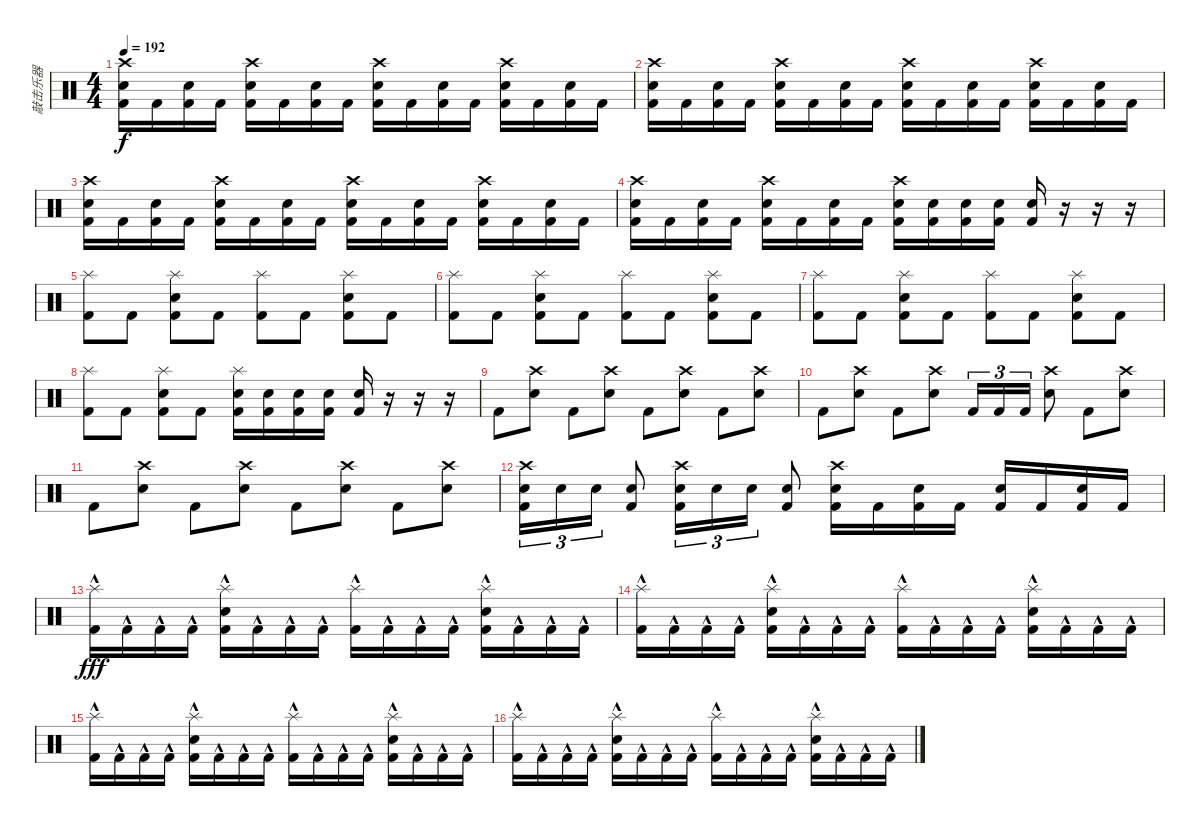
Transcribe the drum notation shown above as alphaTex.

\track ("敲击乐器" "敲击乐器") {instrument percussion}
\staff {score}
\articulation defaults
\ts (4 4)
\tempo 192
\clef neutral
\ks c
("Crash high (hit)" "Kick (hit) 2" "Electric Snare (hit)").16{dy f} "Kick (hit) 2".16 ("Kick (hit) 2" "Electric Snare (hit)").16 "Kick (hit) 2".16 ("Crash high (hit)" "Kick (hit) 2" "Electric Snare (hit)").16 "Kick (hit) 2".16 ("Kick (hit) 2" "Electric Snare (hit)").16 "Kick (hit) 2".16 ("Crash high (hit)" "Kick (hit) 2" "Electric Snare (hit)").16 "Kick (hit) 2".16 ("Kick (hit) 2" "Electric Snare (hit)").16 "Kick (hit) 2".16 ("Crash high (hit)" "Kick (hit) 2" "Electric Snare (hit)").16 "Kick (hit) 2".16 ("Kick (hit) 2" "Electric Snare (hit)").16 "Kick (hit) 2".16 |
("Crash high (hit)" "Kick (hit) 2" "Electric Snare (hit)").16 "Kick (hit) 2".16 ("Kick (hit) 2" "Electric Snare (hit)").16 "Kick (hit) 2".16 ("Crash high (hit)" "Kick (hit) 2" "Electric Snare (hit)").16 "Kick (hit) 2".16 ("Kick (hit) 2" "Electric Snare (hit)").16 "Kick (hit) 2".16 ("Crash high (hit)" "Kick (hit) 2" "Electric Snare (hit)").16 "Kick (hit) 2".16 ("Kick (hit) 2" "Electric Snare (hit)").16 "Kick (hit) 2".16 ("Crash high (hit)" "Kick (hit) 2" "Electric Snare (hit)").16 "Kick (hit) 2".16 ("Kick (hit) 2" "Electric Snare (hit)").16 "Kick (hit) 2".16 |
("Crash high (hit)" "Kick (hit) 2" "Electric Snare (hit)").16 "Kick (hit) 2".16 ("Kick (hit) 2" "Electric Snare (hit)").16 "Kick (hit) 2".16 ("Crash high (hit)" "Kick (hit) 2" "Electric Snare (hit)").16 "Kick (hit) 2".16 ("Kick (hit) 2" "Electric Snare (hit)").16 "Kick (hit) 2".16 ("Crash high (hit)" "Kick (hit) 2" "Electric Snare (hit)").16 "Kick (hit) 2".16 ("Kick (hit) 2" "Electric Snare (hit)").16 "Kick (hit) 2".16 ("Crash high (hit)" "Kick (hit) 2" "Electric Snare (hit)").16 "Kick (hit) 2".16 ("Kick (hit) 2" "Electric Snare (hit)").16 "Kick (hit) 2".16 |
("Crash high (hit)" "Kick (hit) 2" "Electric Snare (hit)").16 "Kick (hit) 2".16 ("Kick (hit) 2" "Electric Snare (hit)").16 "Kick (hit) 2".16 ("Crash high (hit)" "Kick (hit) 2" "Electric Snare (hit)").16 "Kick (hit) 2".16 ("Kick (hit) 2" "Electric Snare (hit)").16 "Kick (hit) 2".16 ("Crash high (hit)" "Kick (hit) 2" "Electric Snare (hit)").16 ("Kick (hit) 2" "Electric Snare (hit)").16 ("Kick (hit) 2" "Electric Snare (hit)").16 ("Kick (hit) 2" "Electric Snare (hit)").16 ("Kick (hit) 2" "Electric Snare (hit)").16 r.16 r.16 r.16 |
("Splash (hit)" "Kick (hit) 2").8 "Kick (hit) 2".8 ("Splash (hit)" "Kick (hit) 2" "Electric Snare (hit)").8 "Kick (hit) 2".8 ("Splash (hit)" "Kick (hit) 2").8 "Kick (hit) 2".8 ("Splash (hit)" "Kick (hit) 2" "Electric Snare (hit)").8 "Kick (hit) 2".8 |
("Splash (hit)" "Kick (hit) 2").8 "Kick (hit) 2".8 ("Splash (hit)" "Kick (hit) 2" "Electric Snare (hit)").8 "Kick (hit) 2".8 ("Splash (hit)" "Kick (hit) 2").8 "Kick (hit) 2".8 ("Splash (hit)" "Kick (hit) 2" "Electric Snare (hit)").8 "Kick (hit) 2".8 |
("Splash (hit)" "Kick (hit) 2").8 "Kick (hit) 2".8 ("Splash (hit)" "Kick (hit) 2" "Electric Snare (hit)").8 "Kick (hit) 2".8 ("Splash (hit)" "Kick (hit) 2").8 "Kick (hit) 2".8 ("Splash (hit)" "Kick (hit) 2" "Electric Snare (hit)").8 "Kick (hit) 2".8 |
("Splash (hit)" "Kick (hit) 2").8 "Kick (hit) 2".8 ("Splash (hit)" "Kick (hit) 2" "Electric Snare (hit)").8 "Kick (hit) 2".8 ("Splash (hit)" "Kick (hit) 2" "Electric Snare (hit)").16 ("Kick (hit) 2" "Electric Snare (hit)").16 ("Kick (hit) 2" "Electric Snare (hit)").16 ("Kick (hit) 2" "Electric Snare (hit)").16 ("Kick (hit) 2" "Electric Snare (hit)").16 r.16 r.16 r.16 |
"Kick (hit) 2".8 ("Crash high (hit)" "Electric Snare (hit)").8 "Kick (hit) 2".8 ("Crash high (hit)" "Electric Snare (hit)").8 "Kick (hit) 2".8 ("Crash high (hit)" "Electric Snare (hit)").8 "Kick (hit) 2".8 ("Crash high (hit)" "Electric Snare (hit)").8 |
"Kick (hit) 2".8 ("Crash high (hit)" "Electric Snare (hit)").8 "Kick (hit) 2".8 ("Crash high (hit)" "Electric Snare (hit)").8 "Kick (hit) 2".16{tu (3 2)} "Kick (hit) 2".16{tu (3 2)} "Kick (hit) 2".16{tu (3 2)} ("Crash high (hit)" "Electric Snare (hit)").8 "Kick (hit) 2".8 ("Crash high (hit)" "Electric Snare (hit)").8 |
"Kick (hit) 2".8 ("Crash high (hit)" "Electric Snare (hit)").8 "Kick (hit) 2".8 ("Crash high (hit)" "Electric Snare (hit)").8 "Kick (hit) 2".8 ("Crash high (hit)" "Electric Snare (hit)").8 "Kick (hit) 2".8 ("Crash high (hit)" "Electric Snare (hit)").8 |
("Crash high (hit)" "Kick (hit) 2" "Electric Snare (hit)").16{tu (3 2)} "Electric Snare (hit)".16{tu (3 2)} "Electric Snare (hit)".16{tu (3 2)} ("Kick (hit) 2" "Electric Snare (hit)").8 ("Crash high (hit)" "Kick (hit) 2" "Electric Snare (hit)").16{tu (3 2)} "Electric Snare (hit)".16{tu (3 2)} "Electric Snare (hit)".16{tu (3 2)} ("Kick (hit) 2" "Electric Snare (hit)").8 ("Crash high (hit)" "Kick (hit) 2" "Electric Snare (hit)").16 "Kick (hit) 2".16 ("Kick (hit) 2" "Electric Snare (hit)").16 "Kick (hit) 2".16 ("Kick (hit) 2" "Electric Snare (hit)").16 "Kick (hit) 2".16 ("Kick (hit) 2" "Electric Snare (hit)").16 "Kick (hit) 2".16 |
("Splash (hit)" "Kick (hit) 2"{hac}).16{dy fff} "Kick (hit) 2"{hac}.16 "Kick (hit) 2"{hac}.16 "Kick (hit) 2"{hac}.16 ("Splash (hit)" "Kick (hit) 2"{hac} "Electric Snare (hit)").16 "Kick (hit) 2"{hac}.16 "Kick (hit) 2"{hac}.16 "Kick (hit) 2"{hac}.16 ("Splash (hit)" "Kick (hit) 2"{hac}).16 "Kick (hit) 2"{hac}.16 "Kick (hit) 2"{hac}.16 "Kick (hit) 2"{hac}.16 ("Splash (hit)" "Kick (hit) 2"{hac} "Electric Snare (hit)").16 "Kick (hit) 2"{hac}.16 "Kick (hit) 2"{hac}.16 "Kick (hit) 2"{hac}.16 |
("Splash (hit)" "Kick (hit) 2"{hac}).16 "Kick (hit) 2"{hac}.16 "Kick (hit) 2"{hac}.16 "Kick (hit) 2"{hac}.16 ("Splash (hit)" "Kick (hit) 2"{hac} "Electric Snare (hit)").16 "Kick (hit) 2"{hac}.16 "Kick (hit) 2"{hac}.16 "Kick (hit) 2"{hac}.16 ("Splash (hit)" "Kick (hit) 2"{hac}).16 "Kick (hit) 2"{hac}.16 "Kick (hit) 2"{hac}.16 "Kick (hit) 2"{hac}.16 ("Splash (hit)" "Kick (hit) 2"{hac} "Electric Snare (hit)").16 "Kick (hit) 2"{hac}.16 "Kick (hit) 2"{hac}.16 "Kick (hit) 2"{hac}.16 |
("Splash (hit)" "Kick (hit) 2"{hac}).16 "Kick (hit) 2"{hac}.16 "Kick (hit) 2"{hac}.16 "Kick (hit) 2"{hac}.16 ("Splash (hit)" "Kick (hit) 2"{hac} "Electric Snare (hit)").16 "Kick (hit) 2"{hac}.16 "Kick (hit) 2"{hac}.16 "Kick (hit) 2"{hac}.16 ("Splash (hit)" "Kick (hit) 2"{hac}).16 "Kick (hit) 2"{hac}.16 "Kick (hit) 2"{hac}.16 "Kick (hit) 2"{hac}.16 ("Splash (hit)" "Kick (hit) 2"{hac} "Electric Snare (hit)").16 "Kick (hit) 2"{hac}.16 "Kick (hit) 2"{hac}.16 "Kick (hit) 2"{hac}.16 |
("Splash (hit)" "Kick (hit) 2"{hac}).16 "Kick (hit) 2"{hac}.16 "Kick (hit) 2"{hac}.16 "Kick (hit) 2"{hac}.16 ("Splash (hit)" "Kick (hit) 2"{hac} "Electric Snare (hit)").16 "Kick (hit) 2"{hac}.16 "Kick (hit) 2"{hac}.16 "Kick (hit) 2"{hac}.16 ("Splash (hit)" "Kick (hit) 2"{hac}).16 "Kick (hit) 2"{hac}.16 "Kick (hit) 2"{hac}.16 "Kick (hit) 2"{hac}.16 ("Splash (hit)" "Kick (hit) 2"{hac} "Electric Snare (hit)").16 "Kick (hit) 2"{hac}.16 "Kick (hit) 2"{hac}.16 "Kick (hit) 2"{hac}.16
